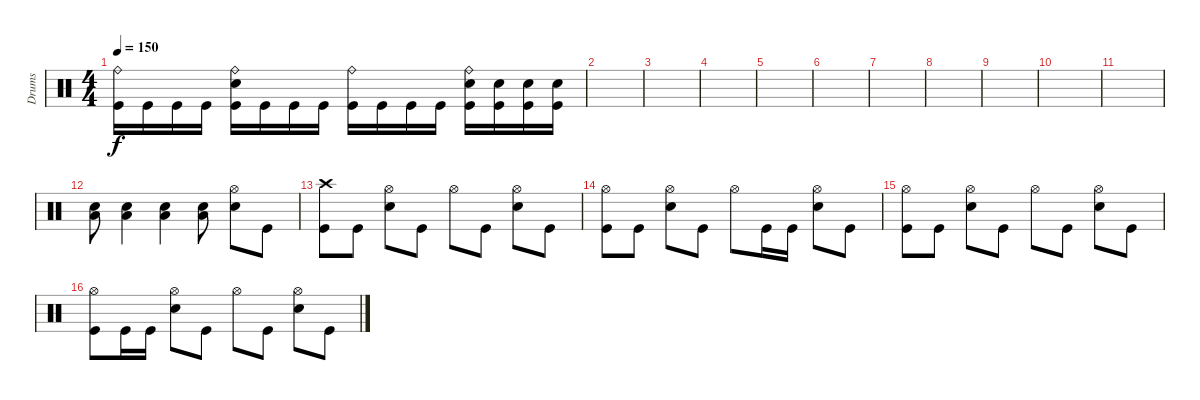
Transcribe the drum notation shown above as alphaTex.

\track ("Drums" "Drums") {instrument percussion}
\staff {score}
\articulation defaults
\ts (4 4)
\tempo 150
\clef neutral
\ks c
("Ride (bell)" "Kick (hit)").16{dy f} "Kick (hit)".16 "Kick (hit)".16 "Kick (hit)".16 ("Ride (bell)" "Electric Snare (hit)" "Kick (hit)").16 "Kick (hit)".16 "Kick (hit)".16 "Kick (hit)".16 ("Ride (bell)" "Kick (hit)").16 "Kick (hit)".16 "Kick (hit)".16 "Kick (hit)".16 ("Ride (bell)" "Electric Snare (hit)" "Kick (hit)").16 ("Electric Snare (hit)" "Kick (hit)").16 ("Electric Snare (hit)" "Kick (hit)").16 ("Electric Snare (hit)" "Kick (hit)").16 |
|
|
|
|
|
|
|
|
|
|
("Low Floor Tom (hit)" "Electric Snare (hit)").8 ("Low Floor Tom (hit)" "Electric Snare (hit)").4 ("Low Floor Tom (hit)" "Electric Snare (hit)").4 ("Low Floor Tom (hit)" "Electric Snare (hit)").8 ("Hi-Hat (open)" "Electric Snare (hit)").8 "Kick (hit)".8 |
("Crash high (hit)" "Kick (hit)").8 "Kick (hit)".8 ("Hi-Hat (open)" "Electric Snare (hit)").8 "Kick (hit)".8 "Hi-Hat (open)".8 "Kick (hit)".8 ("Hi-Hat (open)" "Electric Snare (hit)").8 "Kick (hit)".8 |
("Hi-Hat (open)" "Kick (hit)").8 "Kick (hit)".8 ("Hi-Hat (open)" "Electric Snare (hit)").8 "Kick (hit)".8 "Hi-Hat (open)".8 "Kick (hit)".16 "Kick (hit)".16 ("Hi-Hat (open)" "Electric Snare (hit)").8 "Kick (hit)".8 |
("Hi-Hat (open)" "Kick (hit)").8 "Kick (hit)".8 ("Hi-Hat (open)" "Electric Snare (hit)").8 "Kick (hit)".8 "Hi-Hat (open)".8 "Kick (hit)".8 ("Hi-Hat (open)" "Electric Snare (hit)").8 "Kick (hit)".8 |
("Hi-Hat (open)" "Kick (hit)").8 "Kick (hit)".16 "Kick (hit)".16 ("Hi-Hat (open)" "Electric Snare (hit)").8 "Kick (hit)".8 "Hi-Hat (open)".8 "Kick (hit)".8 ("Hi-Hat (open)" "Electric Snare (hit)").8 "Kick (hit)".8
